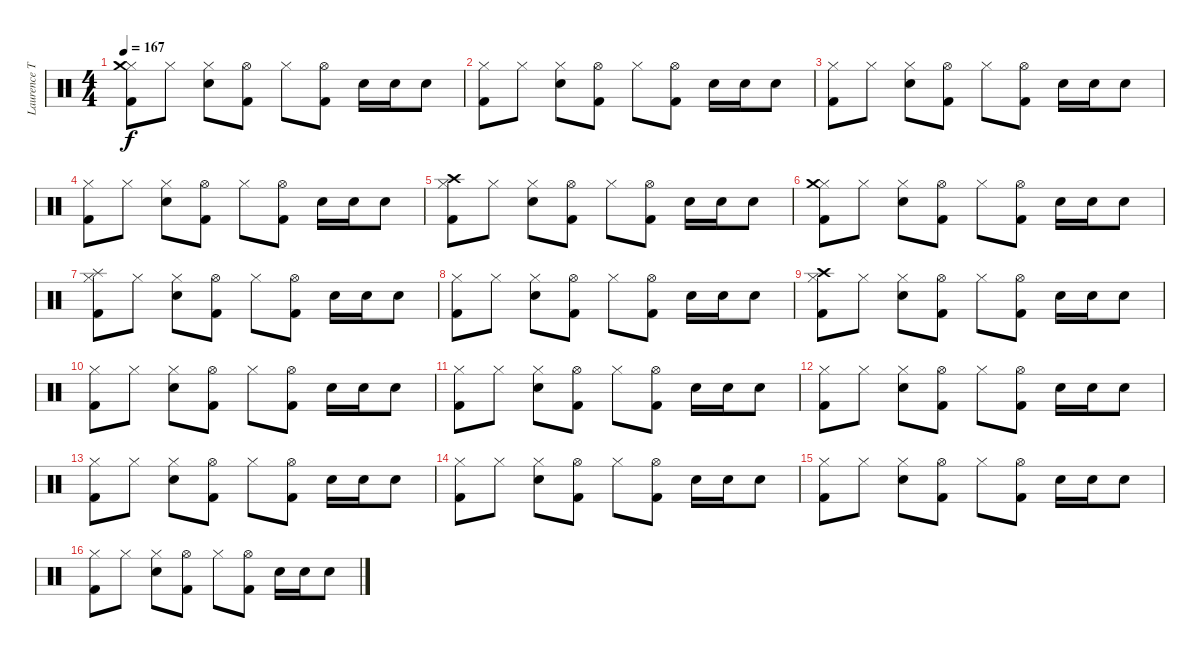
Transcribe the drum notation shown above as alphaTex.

\track ("Laurence Tolhurst" "Laurence T") {instrument percussion}
\staff {score}
\articulation defaults
\ts (4 4)
\tempo 167
\clef neutral
\ks c
("Kick (hit) 2" "Hi-Hat (closed)" "Crash medium (hit)").8{dy f} "Hi-Hat (closed)".8 ("Hi-Hat (closed)" "Snare (hit) 2").8 ("Kick (hit) 2" "Hi-Hat (open)").8 "Hi-Hat (closed)".8 ("Hi-Hat (open)" "Kick (hit) 2").8 "Snare (hit) 2".16 "Snare (hit) 2".16 "Snare (hit) 2".8 |
("Kick (hit) 2" "Hi-Hat (closed)").8 "Hi-Hat (closed)".8 ("Hi-Hat (closed)" "Snare (hit) 2").8 ("Kick (hit) 2" "Hi-Hat (open)").8 "Hi-Hat (closed)".8 ("Hi-Hat (open)" "Kick (hit) 2").8 "Snare (hit) 2".16 "Snare (hit) 2".16 "Snare (hit) 2".8 |
("Kick (hit) 2" "Hi-Hat (closed)").8 "Hi-Hat (closed)".8 ("Hi-Hat (closed)" "Snare (hit) 2").8 ("Kick (hit) 2" "Hi-Hat (open)").8 "Hi-Hat (closed)".8 ("Hi-Hat (open)" "Kick (hit) 2").8 "Snare (hit) 2".16 "Snare (hit) 2".16 "Snare (hit) 2".8 |
("Kick (hit) 2" "Hi-Hat (closed)").8 "Hi-Hat (closed)".8 ("Hi-Hat (closed)" "Snare (hit) 2").8 ("Kick (hit) 2" "Hi-Hat (open)").8 "Hi-Hat (closed)".8 ("Hi-Hat (open)" "Kick (hit) 2").8 "Snare (hit) 2".16 "Snare (hit) 2".16 "Snare (hit) 2".8 |
("Kick (hit) 2" "Hi-Hat (closed)" "Crash high (hit)").8 "Hi-Hat (closed)".8 ("Hi-Hat (closed)" "Snare (hit) 2").8 ("Kick (hit) 2" "Hi-Hat (open)").8 "Hi-Hat (closed)".8 ("Hi-Hat (open)" "Kick (hit) 2").8 "Snare (hit) 2".16 "Snare (hit) 2".16 "Snare (hit) 2".8 |
("Kick (hit) 2" "Hi-Hat (closed)" "Crash medium (hit)").8 "Hi-Hat (closed)".8 ("Hi-Hat (closed)" "Snare (hit) 2").8 ("Kick (hit) 2" "Hi-Hat (open)").8 "Hi-Hat (closed)".8 ("Hi-Hat (open)" "Kick (hit) 2").8 "Snare (hit) 2".16 "Snare (hit) 2".16 "Snare (hit) 2".8 |
("Kick (hit) 2" "Hi-Hat (closed)" "Splash (hit)").8 "Hi-Hat (closed)".8 ("Hi-Hat (closed)" "Snare (hit) 2").8 ("Kick (hit) 2" "Hi-Hat (open)").8 "Hi-Hat (closed)".8 ("Hi-Hat (open)" "Kick (hit) 2").8 "Snare (hit) 2".16 "Snare (hit) 2".16 "Snare (hit) 2".8 |
("Kick (hit) 2" "Hi-Hat (closed)").8 "Hi-Hat (closed)".8 ("Hi-Hat (closed)" "Snare (hit) 2").8 ("Kick (hit) 2" "Hi-Hat (open)").8 "Hi-Hat (closed)".8 ("Hi-Hat (open)" "Kick (hit) 2").8 "Snare (hit) 2".16 "Snare (hit) 2".16 "Snare (hit) 2".8 |
("Kick (hit) 2" "Hi-Hat (closed)" "Crash high (hit)").8 "Hi-Hat (closed)".8 ("Hi-Hat (closed)" "Snare (hit) 2").8 ("Kick (hit) 2" "Hi-Hat (open)").8 "Hi-Hat (closed)".8 ("Hi-Hat (open)" "Kick (hit) 2").8 "Snare (hit) 2".16 "Snare (hit) 2".16 "Snare (hit) 2".8 |
("Kick (hit) 2" "Hi-Hat (closed)").8 "Hi-Hat (closed)".8 ("Hi-Hat (closed)" "Snare (hit) 2").8 ("Kick (hit) 2" "Hi-Hat (open)").8 "Hi-Hat (closed)".8 ("Hi-Hat (open)" "Kick (hit) 2").8 "Snare (hit) 2".16 "Snare (hit) 2".16 "Snare (hit) 2".8 |
("Kick (hit) 2" "Hi-Hat (closed)").8 "Hi-Hat (closed)".8 ("Hi-Hat (closed)" "Snare (hit) 2").8 ("Kick (hit) 2" "Hi-Hat (open)").8 "Hi-Hat (closed)".8 ("Hi-Hat (open)" "Kick (hit) 2").8 "Snare (hit) 2".16 "Snare (hit) 2".16 "Snare (hit) 2".8 |
("Kick (hit) 2" "Hi-Hat (closed)").8 "Hi-Hat (closed)".8 ("Hi-Hat (closed)" "Snare (hit) 2").8 ("Kick (hit) 2" "Hi-Hat (open)").8 "Hi-Hat (closed)".8 ("Hi-Hat (open)" "Kick (hit) 2").8 "Snare (hit) 2".16 "Snare (hit) 2".16 "Snare (hit) 2".8 |
("Kick (hit) 2" "Hi-Hat (closed)").8 "Hi-Hat (closed)".8 ("Hi-Hat (closed)" "Snare (hit) 2").8 ("Kick (hit) 2" "Hi-Hat (open)").8 "Hi-Hat (closed)".8 ("Hi-Hat (open)" "Kick (hit) 2").8 "Snare (hit) 2".16 "Snare (hit) 2".16 "Snare (hit) 2".8 |
("Kick (hit) 2" "Hi-Hat (closed)").8 "Hi-Hat (closed)".8 ("Hi-Hat (closed)" "Snare (hit) 2").8 ("Kick (hit) 2" "Hi-Hat (open)").8 "Hi-Hat (closed)".8 ("Hi-Hat (open)" "Kick (hit) 2").8 "Snare (hit) 2".16 "Snare (hit) 2".16 "Snare (hit) 2".8 |
("Kick (hit) 2" "Hi-Hat (closed)").8 "Hi-Hat (closed)".8 ("Hi-Hat (closed)" "Snare (hit) 2").8 ("Kick (hit) 2" "Hi-Hat (open)").8 "Hi-Hat (closed)".8 ("Hi-Hat (open)" "Kick (hit) 2").8 "Snare (hit) 2".16 "Snare (hit) 2".16 "Snare (hit) 2".8 |
("Kick (hit) 2" "Hi-Hat (closed)").8 "Hi-Hat (closed)".8 ("Hi-Hat (closed)" "Snare (hit) 2").8 ("Kick (hit) 2" "Hi-Hat (open)").8 "Hi-Hat (closed)".8 ("Hi-Hat (open)" "Kick (hit) 2").8 "Snare (hit) 2".16 "Snare (hit) 2".16 "Snare (hit) 2".8
